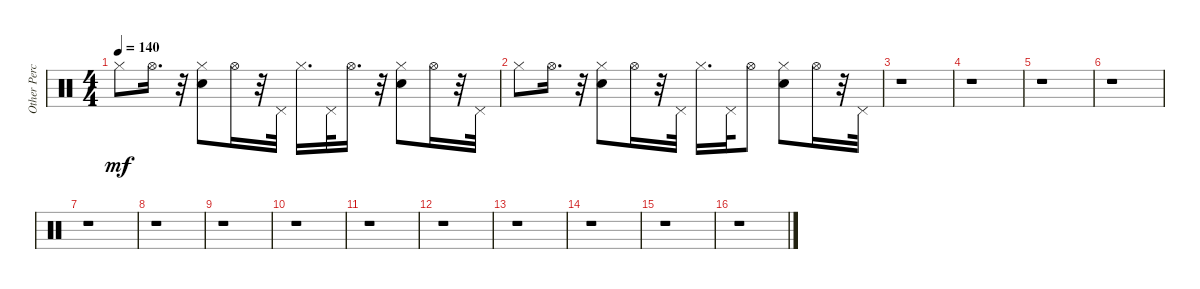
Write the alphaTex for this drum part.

\track ("Other Percussion" "Other Perc") {instrument percussion}
\staff {score}
\articulation defaults
\ts (4 4)
\tempo 140
\clef neutral
\ks c "Hi-Hat (closed)".8{dy mf} "Hi-Hat (open)".16{d}
r.32 ("Hand Clap (hit)" "Hi-Hat (closed)").8 "Hi-Hat (open)".16 r.32 "Pedal Hi-Hat (hit)".32 "Hi-Hat (closed)".16{d} "Pedal Hi-Hat (hit)".32 "Hi-Hat (open)".16{d} r.32 ("Hand Clap (hit)" "Hi-Hat (closed)").8 "Hi-Hat (open)".16 r.32 "Pedal Hi-Hat (hit)".32 |
"Hi-Hat (closed)".8 "Hi-Hat (open)".16{d} r.32 ("Hand Clap (hit)" "Hi-Hat (closed)").8 "Hi-Hat (open)".16 r.32 "Pedal Hi-Hat (hit)".32 "Hi-Hat (closed)".16{d} "Pedal Hi-Hat (hit)".32 "Hi-Hat (open)".8 ("Hand Clap (hit)" "Hi-Hat (closed)").8 "Hi-Hat (open)".16 r.32 "Pedal Hi-Hat (hit)".32 |
r.1 |
r.1 |
r.1 |
r.1 |
r.1 |
r.1 |
r.1 |
r.1 |
r.1 |
r.1 |
r.1 |
r.1 |
r.1 |
r.1
